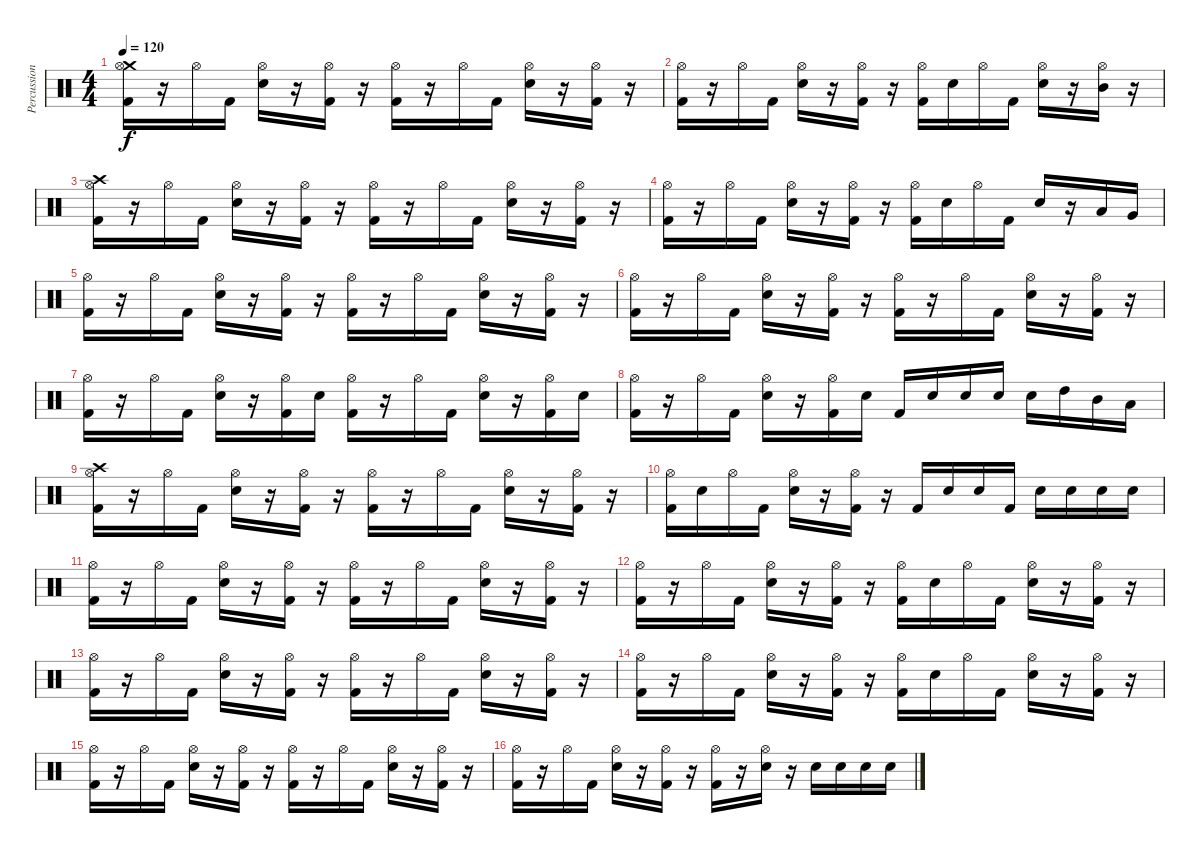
\track ("Percussion" "Percussion") {instrument percussion}
\staff {score}
\articulation defaults
\ts (4 4)
\tempo 120
\clef neutral
\ks c
("Crash medium (hit)" "Kick (hit) 2" "Hi-Hat (open)").16{dy f} r.16 "Hi-Hat (open)".16 "Kick (hit) 2".16 ("Electric Snare (hit)" "Hi-Hat (open)").16 r.16 ("Kick (hit) 2" "Hi-Hat (open)").16 r.16 ("Kick (hit) 2" "Hi-Hat (open)").16 r.16 "Hi-Hat (open)".16 "Kick (hit) 2".16 ("Electric Snare (hit)" "Hi-Hat (open)").16 r.16 ("Kick (hit) 2" "Hi-Hat (open)").16 r.16 |
("Kick (hit) 2" "Hi-Hat (open)").16 r.16 "Hi-Hat (open)".16 "Kick (hit) 2".16 ("Electric Snare (hit)" "Hi-Hat (open)").16 r.16 ("Kick (hit) 2" "Hi-Hat (open)").16 r.16 ("Kick (hit) 2" "Hi-Hat (open)").16 "Electric Snare (hit)".16 "Hi-Hat (open)".16 "Kick (hit) 2".16 ("Electric Snare (hit)" "Hi-Hat (open)").16 r.16 ("Mid Tom (hit)" "Hi-Hat (open)").16 r.16 |
("Crash high (hit)" "Kick (hit) 2" "Hi-Hat (open)").16 r.16 "Hi-Hat (open)".16 "Kick (hit) 2".16 ("Electric Snare (hit)" "Hi-Hat (open)").16 r.16 ("Kick (hit) 2" "Hi-Hat (open)").16 r.16 ("Kick (hit) 2" "Hi-Hat (open)").16 r.16 "Hi-Hat (open)".16 "Kick (hit) 2".16 ("Electric Snare (hit)" "Hi-Hat (open)").16 r.16 ("Kick (hit) 2" "Hi-Hat (open)").16 r.16 |
("Kick (hit) 2" "Hi-Hat (open)").16 r.16 "Hi-Hat (open)".16 "Kick (hit) 2".16 ("Electric Snare (hit)" "Hi-Hat (open)").16 r.16 ("Kick (hit) 2" "Hi-Hat (open)").16 r.16 ("Kick (hit) 2" "Hi-Hat (open)").16 "Electric Snare (hit)".16 "Hi-Hat (open)".16 "Kick (hit) 2".16 "Electric Snare (hit)".16 r.16 "Low Tom (hit)".16 "Very Low Tom (hit)".16 |
("Kick (hit) 2" "Hi-Hat (open)").16 r.16 "Hi-Hat (open)".16 "Kick (hit) 2".16 ("Electric Snare (hit)" "Hi-Hat (open)").16 r.16 ("Kick (hit) 2" "Hi-Hat (open)").16 r.16 ("Kick (hit) 2" "Hi-Hat (open)").16 r.16 "Hi-Hat (open)".16 "Kick (hit) 2".16 ("Electric Snare (hit)" "Hi-Hat (open)").16 r.16 ("Kick (hit) 2" "Hi-Hat (open)").16 r.16 |
("Kick (hit) 2" "Hi-Hat (open)").16 r.16 "Hi-Hat (open)".16 "Kick (hit) 2".16 ("Electric Snare (hit)" "Hi-Hat (open)").16 r.16 ("Kick (hit) 2" "Hi-Hat (open)").16 r.16 ("Kick (hit) 2" "Hi-Hat (open)").16 r.16 "Hi-Hat (open)".16 "Kick (hit) 2".16 ("Electric Snare (hit)" "Hi-Hat (open)").16 r.16 ("Kick (hit) 2" "Hi-Hat (open)").16 r.16 |
("Kick (hit) 2" "Hi-Hat (open)").16 r.16 "Hi-Hat (open)".16 "Kick (hit) 2".16 ("Electric Snare (hit)" "Hi-Hat (open)").16 r.16 ("Kick (hit) 2" "Hi-Hat (open)").16 "Electric Snare (hit)".16 ("Kick (hit) 2" "Hi-Hat (open)").16 r.16 "Hi-Hat (open)".16 "Kick (hit) 2".16 ("Electric Snare (hit)" "Hi-Hat (open)").16 r.16 ("Kick (hit) 2" "Hi-Hat (open)").16 "Electric Snare (hit)".16 |
("Kick (hit) 2" "Hi-Hat (open)").16 r.16 "Hi-Hat (open)".16 "Kick (hit) 2".16 ("Electric Snare (hit)" "Hi-Hat (open)").16 r.16 ("Kick (hit) 2" "Hi-Hat (open)").16 "Electric Snare (hit)".16 "Kick (hit) 2".16 "Electric Snare (hit)".16 "Electric Snare (hit)".16 "Electric Snare (hit)".16 "Electric Snare (hit)".16 "High Tom (hit)".16 "Mid Tom (hit)".16 "Low Tom (hit)".16 |
("Crash high (hit)" "Kick (hit) 2" "Hi-Hat (open)").16 r.16 "Hi-Hat (open)".16 "Kick (hit) 2".16 ("Electric Snare (hit)" "Hi-Hat (open)").16 r.16 ("Kick (hit) 2" "Hi-Hat (open)").16 r.16 ("Kick (hit) 2" "Hi-Hat (open)").16 r.16 "Hi-Hat (open)".16 "Kick (hit) 2".16 ("Electric Snare (hit)" "Hi-Hat (open)").16 r.16 ("Kick (hit) 2" "Hi-Hat (open)").16 r.16 |
("Kick (hit) 2" "Hi-Hat (open)").16 "Electric Snare (hit)".16 "Hi-Hat (open)".16 "Kick (hit) 2".16 ("Electric Snare (hit)" "Hi-Hat (open)").16 r.16 ("Kick (hit) 2" "Hi-Hat (open)").16 r.16 "Kick (hit) 2".16 "Electric Snare (hit)".16 "Electric Snare (hit)".16 "Kick (hit) 2".16 "Electric Snare (hit)".16 "Electric Snare (hit)".16 "Electric Snare (hit)".16 "Electric Snare (hit)".16 |
("Kick (hit) 2" "Hi-Hat (open)").16 r.16 "Hi-Hat (open)".16 "Kick (hit) 2".16 ("Electric Snare (hit)" "Hi-Hat (open)").16 r.16 ("Kick (hit) 2" "Hi-Hat (open)").16 r.16 ("Kick (hit) 2" "Hi-Hat (open)").16 r.16 "Hi-Hat (open)".16 "Kick (hit) 2".16 ("Electric Snare (hit)" "Hi-Hat (open)").16 r.16 ("Kick (hit) 2" "Hi-Hat (open)").16 r.16 |
("Kick (hit) 2" "Hi-Hat (open)").16 r.16 "Hi-Hat (open)".16 "Kick (hit) 2".16 ("Electric Snare (hit)" "Hi-Hat (open)").16 r.16 ("Kick (hit) 2" "Hi-Hat (open)").16 r.16 ("Kick (hit) 2" "Hi-Hat (open)").16 "Electric Snare (hit)".16 "Hi-Hat (open)".16 "Kick (hit) 2".16 ("Electric Snare (hit)" "Hi-Hat (open)").16 r.16 ("Kick (hit) 2" "Hi-Hat (open)").16 r.16 |
("Kick (hit) 2" "Hi-Hat (open)").16 r.16 "Hi-Hat (open)".16 "Kick (hit) 2".16 ("Electric Snare (hit)" "Hi-Hat (open)").16 r.16 ("Kick (hit) 2" "Hi-Hat (open)").16 r.16 ("Kick (hit) 2" "Hi-Hat (open)").16 r.16 "Hi-Hat (open)".16 "Kick (hit) 2".16 ("Electric Snare (hit)" "Hi-Hat (open)").16 r.16 ("Kick (hit) 2" "Hi-Hat (open)").16 r.16 |
("Kick (hit) 2" "Hi-Hat (open)").16 r.16 "Hi-Hat (open)".16 "Kick (hit) 2".16 ("Electric Snare (hit)" "Hi-Hat (open)").16 r.16 ("Kick (hit) 2" "Hi-Hat (open)").16 r.16 ("Kick (hit) 2" "Hi-Hat (open)").16 "Electric Snare (hit)".16 "Hi-Hat (open)".16 "Kick (hit) 2".16 ("Electric Snare (hit)" "Hi-Hat (open)").16 r.16 ("Kick (hit) 2" "Hi-Hat (open)").16 r.16 |
("Kick (hit) 2" "Hi-Hat (open)").16 r.16 "Hi-Hat (open)".16 "Kick (hit) 2".16 ("Electric Snare (hit)" "Hi-Hat (open)").16 r.16 ("Kick (hit) 2" "Hi-Hat (open)").16 r.16 ("Kick (hit) 2" "Hi-Hat (open)").16 r.16 "Hi-Hat (open)".16 "Kick (hit) 2".16 ("Electric Snare (hit)" "Hi-Hat (open)").16 r.16 ("Kick (hit) 2" "Hi-Hat (open)").16 r.16 |
("Kick (hit) 2" "Hi-Hat (open)").16 r.16 "Hi-Hat (open)".16 "Kick (hit) 2".16 ("Electric Snare (hit)" "Hi-Hat (open)").16 r.16 ("Kick (hit) 2" "Hi-Hat (open)").16 r.16 ("Kick (hit) 2" "Hi-Hat (open)").16 r.16 ("Electric Snare (hit)" "Hi-Hat (open)").16 r.16 "Electric Snare (hit)".16 "Electric Snare (hit)".16 "Electric Snare (hit)".16 "Electric Snare (hit)".16
